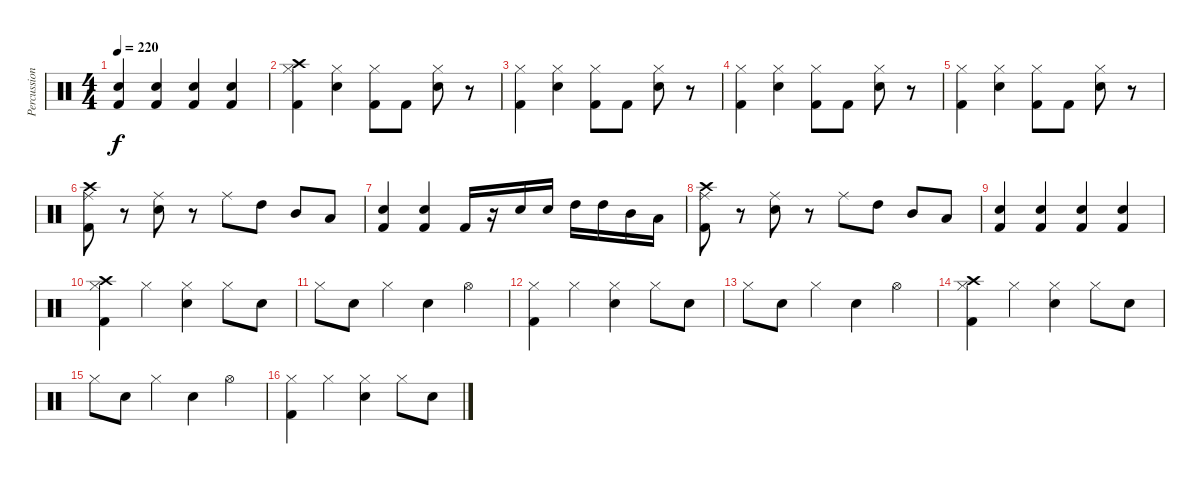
\track ("Percussions" "Percussion") {instrument percussion}
\staff {score}
\articulation defaults
\ts (4 4)
\tempo 220
\clef neutral
\ks c
("Electric Snare (hit)" "Kick (hit) 2").4{dy f} ("Electric Snare (hit)" "Kick (hit) 2").4 ("Electric Snare (hit)" "Kick (hit) 2").4 ("Electric Snare (hit)" "Kick (hit) 2").4 |
("Crash high (hit)" "Hi-Hat (closed)" "Kick (hit) 2").4 ("Hi-Hat (closed)" "Electric Snare (hit)").4 ("Hi-Hat (closed)" "Kick (hit) 2").8 "Kick (hit) 2".8 ("Hi-Hat (closed)" "Electric Snare (hit)").8 r.8 |
("Hi-Hat (closed)" "Kick (hit) 2").4 ("Hi-Hat (closed)" "Electric Snare (hit)").4 ("Hi-Hat (closed)" "Kick (hit) 2").8 "Kick (hit) 2".8 ("Hi-Hat (closed)" "Electric Snare (hit)").8 r.8 |
("Hi-Hat (closed)" "Kick (hit) 2").4 ("Hi-Hat (closed)" "Electric Snare (hit)").4 ("Hi-Hat (closed)" "Kick (hit) 2").8 "Kick (hit) 2".8 ("Hi-Hat (closed)" "Electric Snare (hit)").8 r.8 |
("Hi-Hat (closed)" "Kick (hit) 2").4 ("Hi-Hat (closed)" "Electric Snare (hit)").4 ("Hi-Hat (closed)" "Kick (hit) 2").8 "Kick (hit) 2".8 ("Hi-Hat (closed)" "Electric Snare (hit)").8 r.8 |
("Crash high (hit)" "Ride (middle)" "Kick (hit) 2").8 r.8 ("Ride (middle)" "Electric Snare (hit)").8 r.8 "Ride (middle)".8 "High Tom (hit)".8 "Mid Tom (hit)".8 "Low Tom (hit)".8 |
("Electric Snare (hit)" "Kick (hit) 2").4 ("Electric Snare (hit)" "Kick (hit) 2").4 "Kick (hit) 2".16 r.16 "Electric Snare (hit)".16 "Electric Snare (hit)".16 "High Tom (hit)".16 "High Tom (hit)".16 "Mid Tom (hit)".16 "Low Tom (hit)".16 |
("Crash high (hit)" "Ride (middle)" "Kick (hit) 2").8 r.8 ("Ride (middle)" "Electric Snare (hit)").8 r.8 "Ride (middle)".8 "High Tom (hit)".8 "Mid Tom (hit)".8 "Low Tom (hit)".8 |
("Electric Snare (hit)" "Kick (hit) 2").4 ("Electric Snare (hit)" "Kick (hit) 2").4 ("Electric Snare (hit)" "Kick (hit) 2").4 ("Electric Snare (hit)" "Kick (hit) 2").4 |
("Crash high (hit)" "Hi-Hat (closed)" "Kick (hit) 2").4 "Hi-Hat (closed)".4 ("Hi-Hat (closed)" "Electric Snare (hit)").4 "Hi-Hat (closed)".8 "Electric Snare (hit)".8 |
"Hi-Hat (closed)".8 "Electric Snare (hit)".8 "Hi-Hat (closed)".4 "Electric Snare (hit)".4 "Hi-Hat (open)".4 |
("Hi-Hat (closed)" "Kick (hit) 2").4 "Hi-Hat (closed)".4 ("Hi-Hat (closed)" "Electric Snare (hit)").4 "Hi-Hat (closed)".8 "Electric Snare (hit)".8 |
"Hi-Hat (closed)".8 "Electric Snare (hit)".8 "Hi-Hat (closed)".4 "Electric Snare (hit)".4 "Hi-Hat (open)".4 |
("Crash high (hit)" "Hi-Hat (closed)" "Kick (hit) 2").4 "Hi-Hat (closed)".4 ("Hi-Hat (closed)" "Electric Snare (hit)").4 "Hi-Hat (closed)".8 "Electric Snare (hit)".8 |
"Hi-Hat (closed)".8 "Electric Snare (hit)".8 "Hi-Hat (closed)".4 "Electric Snare (hit)".4 "Hi-Hat (open)".4 |
("Hi-Hat (closed)" "Kick (hit) 2").4 "Hi-Hat (closed)".4 ("Hi-Hat (closed)" "Electric Snare (hit)").4 "Hi-Hat (closed)".8 "Electric Snare (hit)".8
